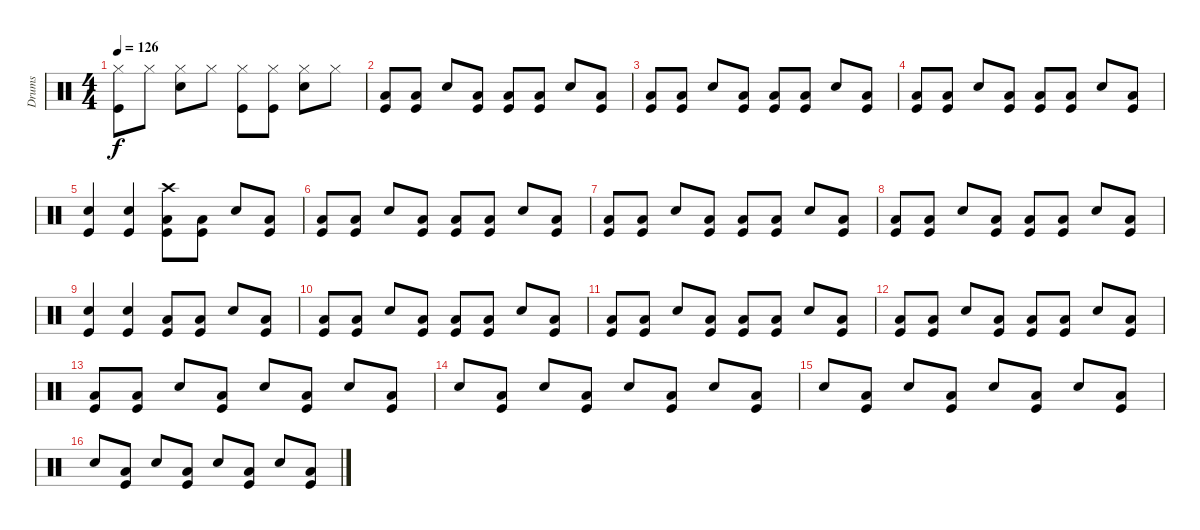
\track ("Drums" "Drums") {instrument percussion}
\staff {score}
\articulation defaults
\ts (4 4)
\tempo 126
\clef neutral
\ks c
("Kick (hit)" "Hi-Hat (closed)").8{dy f} "Hi-Hat (closed)".8 ("Electric Snare (hit)" "Hi-Hat (closed)").8 "Hi-Hat (closed)".8 ("Kick (hit)" "Hi-Hat (closed)").8 ("Kick (hit)" "Hi-Hat (closed)").8 ("Electric Snare (hit)" "Hi-Hat (closed)").8 "Hi-Hat (closed)".8 |
("Kick (hit)" "Low Floor Tom (hit)").8 ("Kick (hit)" "Low Floor Tom (hit)").8 "Electric Snare (hit)".8 ("Kick (hit)" "Low Floor Tom (hit)").8 ("Kick (hit)" "Low Floor Tom (hit)").8 ("Kick (hit)" "Low Floor Tom (hit)").8 "Electric Snare (hit)".8 ("Kick (hit)" "Low Floor Tom (hit)").8 |
("Kick (hit)" "Low Floor Tom (hit)").8 ("Kick (hit)" "Low Floor Tom (hit)").8 "Electric Snare (hit)".8 ("Kick (hit)" "Low Floor Tom (hit)").8 ("Kick (hit)" "Low Floor Tom (hit)").8 ("Kick (hit)" "Low Floor Tom (hit)").8 "Electric Snare (hit)".8 ("Kick (hit)" "Low Floor Tom (hit)").8 |
("Kick (hit)" "Low Floor Tom (hit)").8 ("Kick (hit)" "Low Floor Tom (hit)").8 "Electric Snare (hit)".8 ("Kick (hit)" "Low Floor Tom (hit)").8 ("Kick (hit)" "Low Floor Tom (hit)").8 ("Kick (hit)" "Low Floor Tom (hit)").8 "Electric Snare (hit)".8 ("Kick (hit)" "Low Floor Tom (hit)").8 |
("Kick (hit)" "Electric Snare (hit)").4 ("Kick (hit)" "Electric Snare (hit)").4 ("Crash high (hit)" "Kick (hit)" "Low Floor Tom (hit)").8 ("Kick (hit)" "Low Floor Tom (hit)").8 "Electric Snare (hit)".8 ("Kick (hit)" "Low Floor Tom (hit)").8 |
("Kick (hit)" "Low Floor Tom (hit)").8 ("Kick (hit)" "Low Floor Tom (hit)").8 "Electric Snare (hit)".8 ("Kick (hit)" "Low Floor Tom (hit)").8 ("Kick (hit)" "Low Floor Tom (hit)").8 ("Kick (hit)" "Low Floor Tom (hit)").8 "Electric Snare (hit)".8 ("Kick (hit)" "Low Floor Tom (hit)").8 |
("Kick (hit)" "Low Floor Tom (hit)").8 ("Kick (hit)" "Low Floor Tom (hit)").8 "Electric Snare (hit)".8 ("Kick (hit)" "Low Floor Tom (hit)").8 ("Kick (hit)" "Low Floor Tom (hit)").8 ("Kick (hit)" "Low Floor Tom (hit)").8 "Electric Snare (hit)".8 ("Kick (hit)" "Low Floor Tom (hit)").8 |
("Kick (hit)" "Low Floor Tom (hit)").8 ("Kick (hit)" "Low Floor Tom (hit)").8 "Electric Snare (hit)".8 ("Kick (hit)" "Low Floor Tom (hit)").8 ("Kick (hit)" "Low Floor Tom (hit)").8 ("Kick (hit)" "Low Floor Tom (hit)").8 "Electric Snare (hit)".8 ("Kick (hit)" "Low Floor Tom (hit)").8 |
("Kick (hit)" "Electric Snare (hit)").4 ("Kick (hit)" "Electric Snare (hit)").4 ("Kick (hit)" "Low Floor Tom (hit)").8 ("Kick (hit)" "Low Floor Tom (hit)").8 "Electric Snare (hit)".8 ("Kick (hit)" "Low Floor Tom (hit)").8 |
("Kick (hit)" "Low Floor Tom (hit)").8 ("Kick (hit)" "Low Floor Tom (hit)").8 "Electric Snare (hit)".8 ("Kick (hit)" "Low Floor Tom (hit)").8 ("Kick (hit)" "Low Floor Tom (hit)").8 ("Kick (hit)" "Low Floor Tom (hit)").8 "Electric Snare (hit)".8 ("Kick (hit)" "Low Floor Tom (hit)").8 |
("Kick (hit)" "Low Floor Tom (hit)").8 ("Kick (hit)" "Low Floor Tom (hit)").8 "Electric Snare (hit)".8 ("Kick (hit)" "Low Floor Tom (hit)").8 ("Kick (hit)" "Low Floor Tom (hit)").8 ("Kick (hit)" "Low Floor Tom (hit)").8 "Electric Snare (hit)".8 ("Kick (hit)" "Low Floor Tom (hit)").8 |
("Kick (hit)" "Low Floor Tom (hit)").8 ("Kick (hit)" "Low Floor Tom (hit)").8 "Electric Snare (hit)".8 ("Kick (hit)" "Low Floor Tom (hit)").8 ("Kick (hit)" "Low Floor Tom (hit)").8 ("Kick (hit)" "Low Floor Tom (hit)").8 "Electric Snare (hit)".8 ("Kick (hit)" "Low Floor Tom (hit)").8 |
("Kick (hit)" "Low Floor Tom (hit)").8 ("Kick (hit)" "Low Floor Tom (hit)").8 "Electric Snare (hit)".8 ("Kick (hit)" "Low Floor Tom (hit)").8 "Electric Snare (hit)".8 ("Kick (hit)" "Low Floor Tom (hit)").8 "Electric Snare (hit)".8 ("Kick (hit)" "Low Floor Tom (hit)").8 |
"Electric Snare (hit)".8 ("Kick (hit)" "Low Floor Tom (hit)").8 "Electric Snare (hit)".8 ("Kick (hit)" "Low Floor Tom (hit)").8 "Electric Snare (hit)".8 ("Kick (hit)" "Low Floor Tom (hit)").8 "Electric Snare (hit)".8 ("Kick (hit)" "Low Floor Tom (hit)").8 |
"Electric Snare (hit)".8 ("Kick (hit)" "Low Floor Tom (hit)").8 "Electric Snare (hit)".8 ("Kick (hit)" "Low Floor Tom (hit)").8 "Electric Snare (hit)".8 ("Kick (hit)" "Low Floor Tom (hit)").8 "Electric Snare (hit)".8 ("Kick (hit)" "Low Floor Tom (hit)").8 |
"Electric Snare (hit)".8 ("Kick (hit)" "Low Floor Tom (hit)").8 "Electric Snare (hit)".8 ("Kick (hit)" "Low Floor Tom (hit)").8 "Electric Snare (hit)".8 ("Kick (hit)" "Low Floor Tom (hit)").8 "Electric Snare (hit)".8 ("Kick (hit)" "Low Floor Tom (hit)").8
